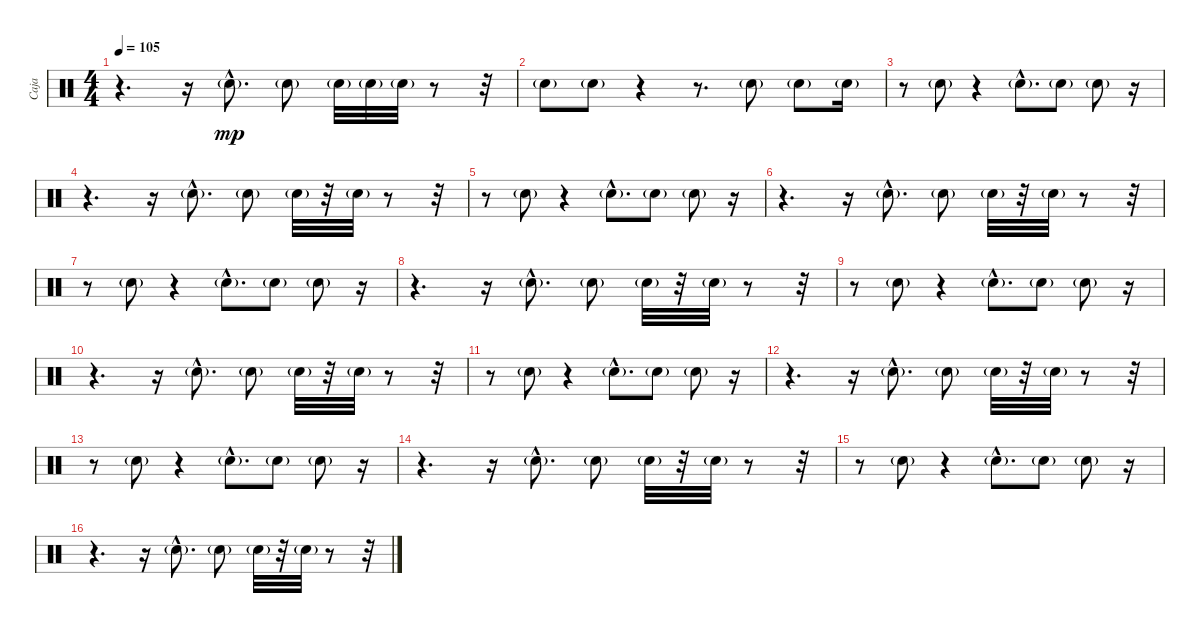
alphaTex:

\track ("Caja" "Caja") {instrument percussion}
\staff {score}
\articulation defaults
\ts (4 4)
\tempo 105
\clef neutral
\ks c
r.4{d dy mp} r.16 "Electric Snare (hit)"{g hac}.8{d} "Electric Snare (hit)"{g}.8 "Electric Snare (hit)"{g}.32 "Electric Snare (hit)"{g}.32 "Electric Snare (hit)"{g}.32 r.8 r.32 |
"Electric Snare (hit)"{g}.8 "Electric Snare (hit)"{g}.8 r.4 r.8{d} "Electric Snare (hit)"{g}.8 "Electric Snare (hit)"{g}.8 "Electric Snare (hit)"{g}.16 |
r.8 "Electric Snare (hit)"{g}.8 r.4 "Electric Snare (hit)"{g hac}.8{d} "Electric Snare (hit)"{g}.8 "Electric Snare (hit)"{g}.8 r.16 |
r.4{d} r.16 "Electric Snare (hit)"{g hac}.8{d} "Electric Snare (hit)"{g}.8 "Electric Snare (hit)"{g}.32 r.32 "Electric Snare (hit)"{g}.32 r.8 r.32 |
r.8 "Electric Snare (hit)"{g}.8 r.4 "Electric Snare (hit)"{g hac}.8{d} "Electric Snare (hit)"{g}.8 "Electric Snare (hit)"{g}.8 r.16 |
r.4{d} r.16 "Electric Snare (hit)"{g hac}.8{d} "Electric Snare (hit)"{g}.8 "Electric Snare (hit)"{g}.32 r.32 "Electric Snare (hit)"{g}.32 r.8 r.32 |
r.8 "Electric Snare (hit)"{g}.8 r.4 "Electric Snare (hit)"{g hac}.8{d} "Electric Snare (hit)"{g}.8 "Electric Snare (hit)"{g}.8 r.16 |
r.4{d} r.16 "Electric Snare (hit)"{g hac}.8{d} "Electric Snare (hit)"{g}.8 "Electric Snare (hit)"{g}.32 r.32 "Electric Snare (hit)"{g}.32 r.8 r.32 |
r.8 "Electric Snare (hit)"{g}.8 r.4 "Electric Snare (hit)"{g hac}.8{d} "Electric Snare (hit)"{g}.8 "Electric Snare (hit)"{g}.8 r.16 |
r.4{d} r.16 "Electric Snare (hit)"{g hac}.8{d} "Electric Snare (hit)"{g}.8 "Electric Snare (hit)"{g}.32 r.32 "Electric Snare (hit)"{g}.32 r.8 r.32 |
r.8 "Electric Snare (hit)"{g}.8 r.4 "Electric Snare (hit)"{g hac}.8{d} "Electric Snare (hit)"{g}.8 "Electric Snare (hit)"{g}.8 r.16 |
r.4{d} r.16 "Electric Snare (hit)"{g hac}.8{d} "Electric Snare (hit)"{g}.8 "Electric Snare (hit)"{g}.32 r.32 "Electric Snare (hit)"{g}.32 r.8 r.32 |
r.8 "Electric Snare (hit)"{g}.8 r.4 "Electric Snare (hit)"{g hac}.8{d} "Electric Snare (hit)"{g}.8 "Electric Snare (hit)"{g}.8 r.16 |
r.4{d} r.16 "Electric Snare (hit)"{g hac}.8{d} "Electric Snare (hit)"{g}.8 "Electric Snare (hit)"{g}.32 r.32 "Electric Snare (hit)"{g}.32 r.8 r.32 |
r.8 "Electric Snare (hit)"{g}.8 r.4 "Electric Snare (hit)"{g hac}.8{d} "Electric Snare (hit)"{g}.8 "Electric Snare (hit)"{g}.8 r.16 |
r.4{d} r.16 "Electric Snare (hit)"{g hac}.8{d} "Electric Snare (hit)"{g}.8 "Electric Snare (hit)"{g}.32 r.32 "Electric Snare (hit)"{g}.32 r.8 r.32
